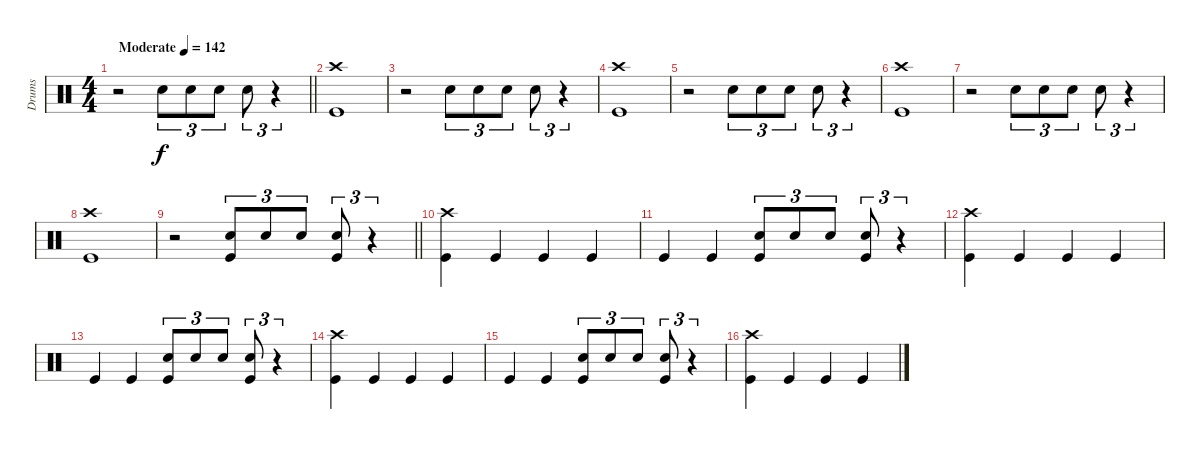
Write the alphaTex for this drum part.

\track ("Drums" "Drums") {instrument percussion}
\staff
\articulation defaults
\ts (4 4)
\tempo (142 "Moderate")
\clef neutral
\barLineRight lightlight
\ks c
r.2{dy f} "Electric Snare (hit)".8{tu (3 2)} "Electric Snare (hit)".8{tu (3 2)} "Electric Snare (hit)".8{tu (3 2)} "Electric Snare (hit)".8{tu (3 2)} r.4{tu (3 2)} |
("Crash high (hit)" "Kick (hit)").1 |
r.2 "Electric Snare (hit)".8{tu (3 2)} "Electric Snare (hit)".8{tu (3 2)} "Electric Snare (hit)".8{tu (3 2)} "Electric Snare (hit)".8{tu (3 2)} r.4{tu (3 2)} |
("Crash high (hit)" "Kick (hit)").1 |
r.2 "Electric Snare (hit)".8{tu (3 2)} "Electric Snare (hit)".8{tu (3 2)} "Electric Snare (hit)".8{tu (3 2)} "Electric Snare (hit)".8{tu (3 2)} r.4{tu (3 2)} |
("Crash high (hit)" "Kick (hit)").1 |
r.2 "Electric Snare (hit)".8{tu (3 2)} "Electric Snare (hit)".8{tu (3 2)} "Electric Snare (hit)".8{tu (3 2)} "Electric Snare (hit)".8{tu (3 2)} r.4{tu (3 2)} |
("Crash high (hit)" "Kick (hit)").1 |
\barLineRight lightlight
r.2 ("Electric Snare (hit)" "Kick (hit)").8{tu (3 2)} "Electric Snare (hit)".8{tu (3 2)} "Electric Snare (hit)".8{tu (3 2)} ("Electric Snare (hit)" "Kick (hit)").8{tu (3 2)} r.4{tu (3 2)} |
("Crash high (hit)" "Kick (hit)").4 "Kick (hit)".4 "Kick (hit)".4 "Kick (hit)".4 |
"Kick (hit)".4 "Kick (hit)".4 ("Electric Snare (hit)" "Kick (hit)").8{tu (3 2)} "Electric Snare (hit)".8{tu (3 2)} "Electric Snare (hit)".8{tu (3 2)} ("Electric Snare (hit)" "Kick (hit)").8{tu (3 2)} r.4{tu (3 2)} |
("Crash high (hit)" "Kick (hit)").4 "Kick (hit)".4 "Kick (hit)".4 "Kick (hit)".4 |
"Kick (hit)".4 "Kick (hit)".4 ("Electric Snare (hit)" "Kick (hit)").8{tu (3 2)} "Electric Snare (hit)".8{tu (3 2)} "Electric Snare (hit)".8{tu (3 2)} ("Electric Snare (hit)" "Kick (hit)").8{tu (3 2)} r.4{tu (3 2)} |
("Crash high (hit)" "Kick (hit)").4 "Kick (hit)".4 "Kick (hit)".4 "Kick (hit)".4 |
"Kick (hit)".4 "Kick (hit)".4 ("Electric Snare (hit)" "Kick (hit)").8{tu (3 2)} "Electric Snare (hit)".8{tu (3 2)} "Electric Snare (hit)".8{tu (3 2)} ("Electric Snare (hit)" "Kick (hit)").8{tu (3 2)} r.4{tu (3 2)} |
("Crash high (hit)" "Kick (hit)").4 "Kick (hit)".4 "Kick (hit)".4 "Kick (hit)".4
